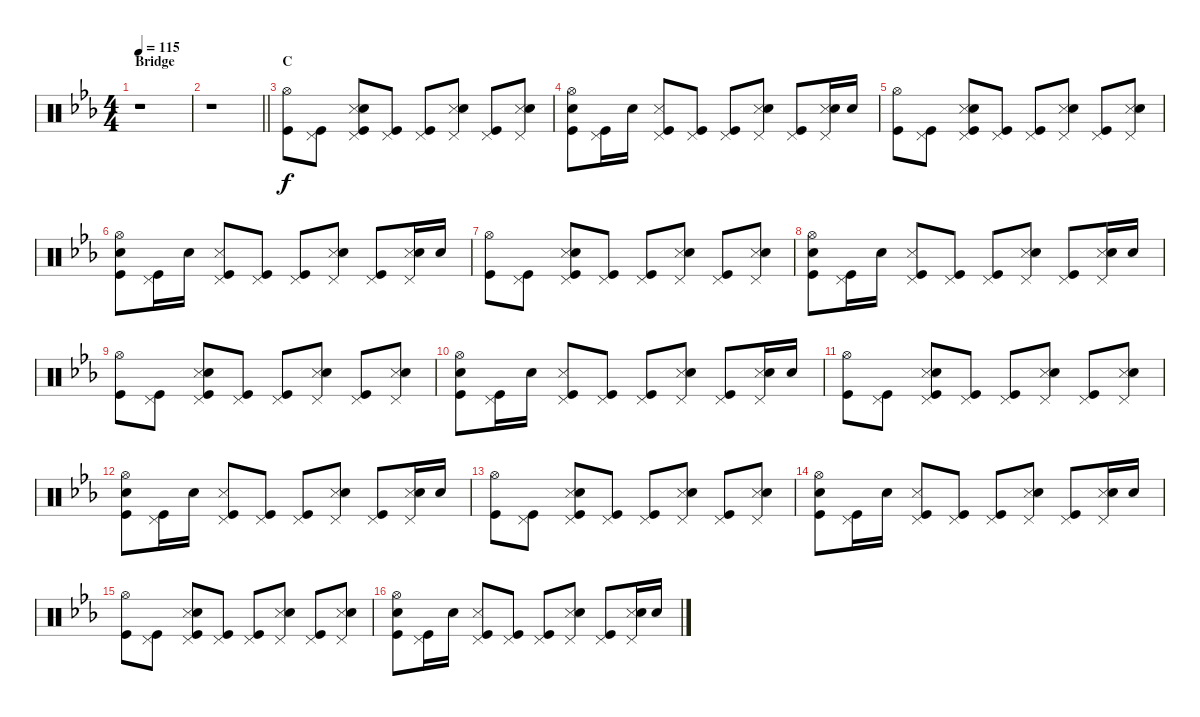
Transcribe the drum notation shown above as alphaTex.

\track "" {instrument percussion}
\staff {score}
\articulation defaults
\ts (4 4)
\section ("" "Bridge")
\tempo 115
\clef neutral
\ks cminor
r.1{dy f} |
\barLineRight lightlight
r.1 |
\section ("" "C")
("Hi-Hat (open)" "Kick (hit)").8 ("Pedal Hi-Hat (hit)" "Kick (hit)").8 ("Pedal Hi-Hat (hit)" "Snare (side stick) 3" "Electric Snare (hit)" "Kick (hit)").8 ("Pedal Hi-Hat (hit)" "Kick (hit)").8 ("Pedal Hi-Hat (hit)" "Kick (hit)").8 ("Pedal Hi-Hat (hit)" "Snare (side stick) 3" "Electric Snare (hit)").8 ("Pedal Hi-Hat (hit)" "Kick (hit)").8 ("Pedal Hi-Hat (hit)" "Snare (side stick) 3" "Electric Snare (hit)").8 |
("Hi-Hat (open)" "Electric Snare (hit)" "Kick (hit)").8 ("Pedal Hi-Hat (hit)" "Kick (hit)").16 "Electric Snare (hit)".16 ("Pedal Hi-Hat (hit)" "Snare (side stick) 3" "Kick (hit)").8 ("Pedal Hi-Hat (hit)" "Kick (hit)").8 ("Pedal Hi-Hat (hit)" "Kick (hit)").8 ("Pedal Hi-Hat (hit)" "Snare (side stick) 3" "Electric Snare (hit)").8 ("Pedal Hi-Hat (hit)" "Kick (hit)").8 ("Pedal Hi-Hat (hit)" "Snare (side stick) 3" "Electric Snare (hit)").16 "Electric Snare (hit)".16 |
("Hi-Hat (open)" "Kick (hit)").8 ("Pedal Hi-Hat (hit)" "Kick (hit)").8 ("Pedal Hi-Hat (hit)" "Snare (side stick) 3" "Electric Snare (hit)" "Kick (hit)").8 ("Pedal Hi-Hat (hit)" "Kick (hit)").8 ("Pedal Hi-Hat (hit)" "Kick (hit)").8 ("Pedal Hi-Hat (hit)" "Snare (side stick) 3" "Electric Snare (hit)").8 ("Pedal Hi-Hat (hit)" "Kick (hit)").8 ("Pedal Hi-Hat (hit)" "Snare (side stick) 3" "Electric Snare (hit)").8 |
("Hi-Hat (open)" "Electric Snare (hit)" "Kick (hit)").8 ("Pedal Hi-Hat (hit)" "Kick (hit)").16 "Electric Snare (hit)".16 ("Pedal Hi-Hat (hit)" "Snare (side stick) 3" "Kick (hit)").8 ("Pedal Hi-Hat (hit)" "Kick (hit)").8 ("Pedal Hi-Hat (hit)" "Kick (hit)").8 ("Pedal Hi-Hat (hit)" "Snare (side stick) 3" "Electric Snare (hit)").8 ("Pedal Hi-Hat (hit)" "Kick (hit)").8 ("Pedal Hi-Hat (hit)" "Snare (side stick) 3" "Electric Snare (hit)").16 "Electric Snare (hit)".16 |
("Hi-Hat (open)" "Kick (hit)").8 ("Pedal Hi-Hat (hit)" "Kick (hit)").8 ("Pedal Hi-Hat (hit)" "Snare (side stick) 3" "Electric Snare (hit)" "Kick (hit)").8 ("Pedal Hi-Hat (hit)" "Kick (hit)").8 ("Pedal Hi-Hat (hit)" "Kick (hit)").8 ("Pedal Hi-Hat (hit)" "Snare (side stick) 3" "Electric Snare (hit)").8 ("Pedal Hi-Hat (hit)" "Kick (hit)").8 ("Pedal Hi-Hat (hit)" "Snare (side stick) 3" "Electric Snare (hit)").8 |
("Hi-Hat (open)" "Electric Snare (hit)" "Kick (hit)").8 ("Pedal Hi-Hat (hit)" "Kick (hit)").16 "Electric Snare (hit)".16 ("Pedal Hi-Hat (hit)" "Snare (side stick) 3" "Kick (hit)").8 ("Pedal Hi-Hat (hit)" "Kick (hit)").8 ("Pedal Hi-Hat (hit)" "Kick (hit)").8 ("Pedal Hi-Hat (hit)" "Snare (side stick) 3" "Electric Snare (hit)").8 ("Pedal Hi-Hat (hit)" "Kick (hit)").8 ("Pedal Hi-Hat (hit)" "Snare (side stick) 3" "Electric Snare (hit)").16 "Electric Snare (hit)".16 |
("Hi-Hat (open)" "Kick (hit)").8 ("Pedal Hi-Hat (hit)" "Kick (hit)").8 ("Pedal Hi-Hat (hit)" "Snare (side stick) 3" "Electric Snare (hit)" "Kick (hit)").8 ("Pedal Hi-Hat (hit)" "Kick (hit)").8 ("Pedal Hi-Hat (hit)" "Kick (hit)").8 ("Pedal Hi-Hat (hit)" "Snare (side stick) 3" "Electric Snare (hit)").8 ("Pedal Hi-Hat (hit)" "Kick (hit)").8 ("Pedal Hi-Hat (hit)" "Snare (side stick) 3" "Electric Snare (hit)").8 |
("Hi-Hat (open)" "Electric Snare (hit)" "Kick (hit)").8 ("Pedal Hi-Hat (hit)" "Kick (hit)").16 "Electric Snare (hit)".16 ("Pedal Hi-Hat (hit)" "Snare (side stick) 3" "Kick (hit)").8 ("Pedal Hi-Hat (hit)" "Kick (hit)").8 ("Pedal Hi-Hat (hit)" "Kick (hit)").8 ("Pedal Hi-Hat (hit)" "Snare (side stick) 3" "Electric Snare (hit)").8 ("Pedal Hi-Hat (hit)" "Kick (hit)").8 ("Pedal Hi-Hat (hit)" "Snare (side stick) 3" "Electric Snare (hit)").16 "Electric Snare (hit)".16 |
("Hi-Hat (open)" "Kick (hit)").8 ("Pedal Hi-Hat (hit)" "Kick (hit)").8 ("Pedal Hi-Hat (hit)" "Snare (side stick) 3" "Electric Snare (hit)" "Kick (hit)").8 ("Pedal Hi-Hat (hit)" "Kick (hit)").8 ("Pedal Hi-Hat (hit)" "Kick (hit)").8 ("Pedal Hi-Hat (hit)" "Snare (side stick) 3" "Electric Snare (hit)").8 ("Pedal Hi-Hat (hit)" "Kick (hit)").8 ("Pedal Hi-Hat (hit)" "Snare (side stick) 3" "Electric Snare (hit)").8 |
("Hi-Hat (open)" "Electric Snare (hit)" "Kick (hit)").8 ("Pedal Hi-Hat (hit)" "Kick (hit)").16 "Electric Snare (hit)".16 ("Pedal Hi-Hat (hit)" "Snare (side stick) 3" "Kick (hit)").8 ("Pedal Hi-Hat (hit)" "Kick (hit)").8 ("Pedal Hi-Hat (hit)" "Kick (hit)").8 ("Pedal Hi-Hat (hit)" "Snare (side stick) 3" "Electric Snare (hit)").8 ("Pedal Hi-Hat (hit)" "Kick (hit)").8 ("Pedal Hi-Hat (hit)" "Snare (side stick) 3" "Electric Snare (hit)").16 "Electric Snare (hit)".16 |
("Hi-Hat (open)" "Kick (hit)").8 ("Pedal Hi-Hat (hit)" "Kick (hit)").8 ("Pedal Hi-Hat (hit)" "Snare (side stick) 3" "Electric Snare (hit)" "Kick (hit)").8 ("Pedal Hi-Hat (hit)" "Kick (hit)").8 ("Pedal Hi-Hat (hit)" "Kick (hit)").8 ("Pedal Hi-Hat (hit)" "Snare (side stick) 3" "Electric Snare (hit)").8 ("Pedal Hi-Hat (hit)" "Kick (hit)").8 ("Pedal Hi-Hat (hit)" "Snare (side stick) 3" "Electric Snare (hit)").8 |
("Hi-Hat (open)" "Electric Snare (hit)" "Kick (hit)").8 ("Pedal Hi-Hat (hit)" "Kick (hit)").16 "Electric Snare (hit)".16 ("Pedal Hi-Hat (hit)" "Snare (side stick) 3" "Kick (hit)").8 ("Pedal Hi-Hat (hit)" "Kick (hit)").8 ("Pedal Hi-Hat (hit)" "Kick (hit)").8 ("Pedal Hi-Hat (hit)" "Snare (side stick) 3" "Electric Snare (hit)").8 ("Pedal Hi-Hat (hit)" "Kick (hit)").8 ("Pedal Hi-Hat (hit)" "Snare (side stick) 3" "Electric Snare (hit)").16 "Electric Snare (hit)".16 |
("Hi-Hat (open)" "Kick (hit)").8 ("Pedal Hi-Hat (hit)" "Kick (hit)").8 ("Pedal Hi-Hat (hit)" "Snare (side stick) 3" "Electric Snare (hit)" "Kick (hit)").8 ("Pedal Hi-Hat (hit)" "Kick (hit)").8 ("Pedal Hi-Hat (hit)" "Kick (hit)").8 ("Pedal Hi-Hat (hit)" "Snare (side stick) 3" "Electric Snare (hit)").8 ("Pedal Hi-Hat (hit)" "Kick (hit)").8 ("Pedal Hi-Hat (hit)" "Snare (side stick) 3" "Electric Snare (hit)").8 |
("Hi-Hat (open)" "Electric Snare (hit)" "Kick (hit)").8 ("Pedal Hi-Hat (hit)" "Kick (hit)").16 "Electric Snare (hit)".16 ("Pedal Hi-Hat (hit)" "Snare (side stick) 3" "Kick (hit)").8 ("Pedal Hi-Hat (hit)" "Kick (hit)").8 ("Pedal Hi-Hat (hit)" "Kick (hit)").8 ("Pedal Hi-Hat (hit)" "Snare (side stick) 3" "Electric Snare (hit)").8 ("Pedal Hi-Hat (hit)" "Kick (hit)").8 ("Pedal Hi-Hat (hit)" "Snare (side stick) 3" "Electric Snare (hit)").16 "Electric Snare (hit)".16
